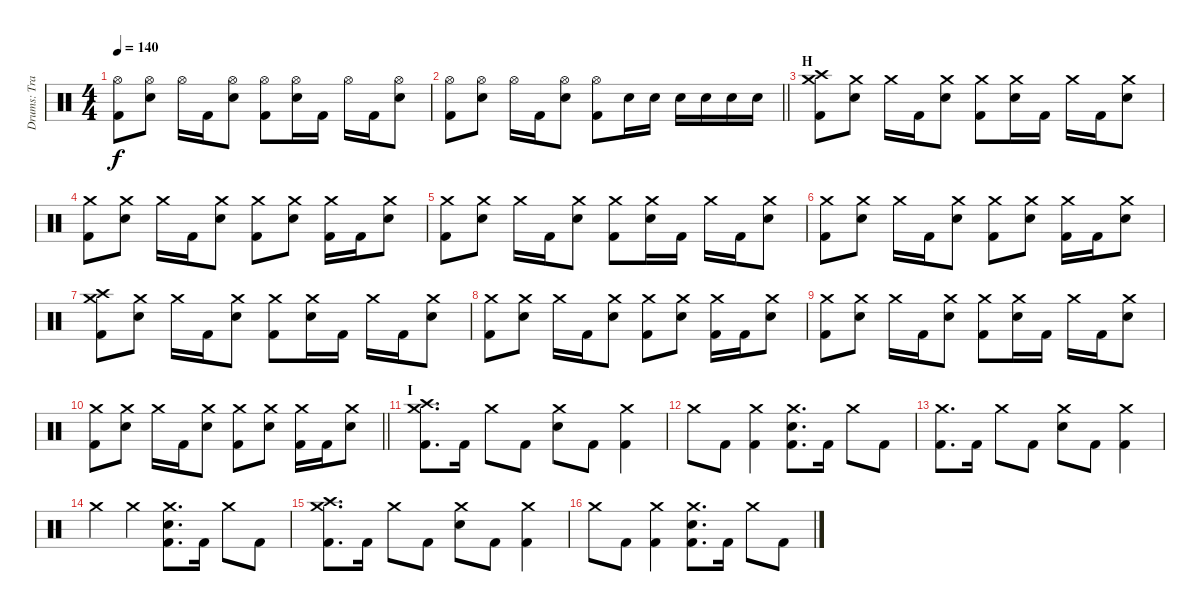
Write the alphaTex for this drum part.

\track ("Drums: Travis Clarke" "Drums: Tra") {instrument percussion}
\staff {score}
\articulation defaults
\ts (4 4)
\tempo 140
\clef neutral
\ks c
("Kick (hit) 2" "Hi-Hat (open)").8{dy f} ("Snare (hit) 2" "Hi-Hat (open)").8 "Hi-Hat (open)".16 "Kick (hit) 2".16 ("Snare (hit) 2" "Hi-Hat (open)").8 ("Kick (hit) 2" "Hi-Hat (open)").8 ("Snare (hit) 2" "Hi-Hat (open)").16 "Kick (hit) 2".16 "Hi-Hat (open)".16 "Kick (hit) 2".16 ("Snare (hit) 2" "Hi-Hat (open)").8 |
\barLineRight lightlight
("Kick (hit) 2" "Hi-Hat (open)").8 ("Snare (hit) 2" "Hi-Hat (open)").8 "Hi-Hat (open)".16 "Kick (hit) 2".16 ("Snare (hit) 2" "Hi-Hat (open)").8 ("Kick (hit) 2" "Hi-Hat (open)").8 "Snare (hit) 2".16 "Snare (hit) 2".16 "Snare (hit) 2".16 "Snare (hit) 2".16 "Snare (hit) 2".16 "Snare (hit) 2".16 |
\section ("" "H")
("Kick (hit) 2" "Crash high (hit)" "Crash medium (hit)").8 ("Snare (hit) 2" "Crash medium (hit)").8 "Crash medium (hit)".16 "Kick (hit) 2".16 ("Snare (hit) 2" "Crash medium (hit)").8 ("Kick (hit) 2" "Crash medium (hit)").8 ("Snare (hit) 2" "Crash medium (hit)").16 "Kick (hit) 2".16 "Crash medium (hit)".16 "Kick (hit) 2".16 ("Snare (hit) 2" "Crash medium (hit)").8 |
("Kick (hit) 2" "Crash medium (hit)").8 ("Snare (hit) 2" "Crash medium (hit)").8 "Crash medium (hit)".16 "Kick (hit) 2".16 ("Snare (hit) 2" "Crash medium (hit)").8 ("Kick (hit) 2" "Crash medium (hit)").8 ("Snare (hit) 2" "Crash medium (hit)").8 ("Kick (hit) 2" "Crash medium (hit)").16 "Kick (hit) 2".16 ("Snare (hit) 2" "Crash medium (hit)").8 |
("Kick (hit) 2" "Crash medium (hit)").8 ("Snare (hit) 2" "Crash medium (hit)").8 "Crash medium (hit)".16 "Kick (hit) 2".16 ("Snare (hit) 2" "Crash medium (hit)").8 ("Kick (hit) 2" "Crash medium (hit)").8 ("Snare (hit) 2" "Crash medium (hit)").16 "Kick (hit) 2".16 "Crash medium (hit)".16 "Kick (hit) 2".16 ("Snare (hit) 2" "Crash medium (hit)").8 |
("Kick (hit) 2" "Crash medium (hit)").8 ("Snare (hit) 2" "Crash medium (hit)").8 "Crash medium (hit)".16 "Kick (hit) 2".16 ("Snare (hit) 2" "Crash medium (hit)").8 ("Kick (hit) 2" "Crash medium (hit)").8 ("Snare (hit) 2" "Crash medium (hit)").8 ("Kick (hit) 2" "Crash medium (hit)").16 "Kick (hit) 2".16 ("Snare (hit) 2" "Crash medium (hit)").8 |
("Kick (hit) 2" "Crash high (hit)" "Crash medium (hit)").8 ("Snare (hit) 2" "Crash medium (hit)").8 "Crash medium (hit)".16 "Kick (hit) 2".16 ("Snare (hit) 2" "Crash medium (hit)").8 ("Kick (hit) 2" "Crash medium (hit)").8 ("Snare (hit) 2" "Crash medium (hit)").16 "Kick (hit) 2".16 "Crash medium (hit)".16 "Kick (hit) 2".16 ("Snare (hit) 2" "Crash medium (hit)").8 |
("Kick (hit) 2" "Crash medium (hit)").8 ("Snare (hit) 2" "Crash medium (hit)").8 "Crash medium (hit)".16 "Kick (hit) 2".16 ("Snare (hit) 2" "Crash medium (hit)").8 ("Kick (hit) 2" "Crash medium (hit)").8 ("Snare (hit) 2" "Crash medium (hit)").8 ("Kick (hit) 2" "Crash medium (hit)").16 "Kick (hit) 2".16 ("Snare (hit) 2" "Crash medium (hit)").8 |
("Kick (hit) 2" "Crash medium (hit)").8 ("Snare (hit) 2" "Crash medium (hit)").8 "Crash medium (hit)".16 "Kick (hit) 2".16 ("Snare (hit) 2" "Crash medium (hit)").8 ("Kick (hit) 2" "Crash medium (hit)").8 ("Snare (hit) 2" "Crash medium (hit)").16 "Kick (hit) 2".16 "Crash medium (hit)".16 "Kick (hit) 2".16 ("Snare (hit) 2" "Crash medium (hit)").8 |
\barLineRight lightlight
("Kick (hit) 2" "Crash medium (hit)").8 ("Snare (hit) 2" "Crash medium (hit)").8 "Crash medium (hit)".16 "Kick (hit) 2".16 ("Snare (hit) 2" "Crash medium (hit)").8 ("Kick (hit) 2" "Crash medium (hit)").8 ("Snare (hit) 2" "Crash medium (hit)").8 ("Kick (hit) 2" "Crash medium (hit)").16 "Kick (hit) 2".16 ("Snare (hit) 2" "Crash medium (hit)").8 |
\section ("" "I")
("Kick (hit) 2" "Crash high (hit)" "Crash medium (hit)").8{d} "Kick (hit) 2".16 "Crash medium (hit)".8 "Kick (hit) 2".8 ("Snare (hit) 2" "Crash medium (hit)").8 "Kick (hit) 2".8 ("Kick (hit) 2" "Crash medium (hit)").4 |
"Crash medium (hit)".8 "Kick (hit) 2".8 ("Kick (hit) 2" "Crash medium (hit)").4 ("Kick (hit) 2" "Snare (hit) 2" "Crash medium (hit)").8{d} "Kick (hit) 2".16 "Crash medium (hit)".8 "Kick (hit) 2".8 |
("Kick (hit) 2" "Crash medium (hit)").8{d} "Kick (hit) 2".16 "Crash medium (hit)".8 "Kick (hit) 2".8 ("Snare (hit) 2" "Crash medium (hit)").8 "Kick (hit) 2".8 ("Kick (hit) 2" "Crash medium (hit)").4 |
"Crash medium (hit)".4 "Crash medium (hit)".4 ("Kick (hit) 2" "Snare (hit) 2" "Crash medium (hit)").8{d} "Kick (hit) 2".16 "Crash medium (hit)".8 "Kick (hit) 2".8 |
("Kick (hit) 2" "Crash high (hit)" "Crash medium (hit)").8{d} "Kick (hit) 2".16 "Crash medium (hit)".8 "Kick (hit) 2".8 ("Snare (hit) 2" "Crash medium (hit)").8 "Kick (hit) 2".8 ("Kick (hit) 2" "Crash medium (hit)").4 |
"Crash medium (hit)".8 "Kick (hit) 2".8 ("Kick (hit) 2" "Crash medium (hit)").4 ("Kick (hit) 2" "Snare (hit) 2" "Crash medium (hit)").8{d} "Kick (hit) 2".16 "Crash medium (hit)".8 "Kick (hit) 2".8
